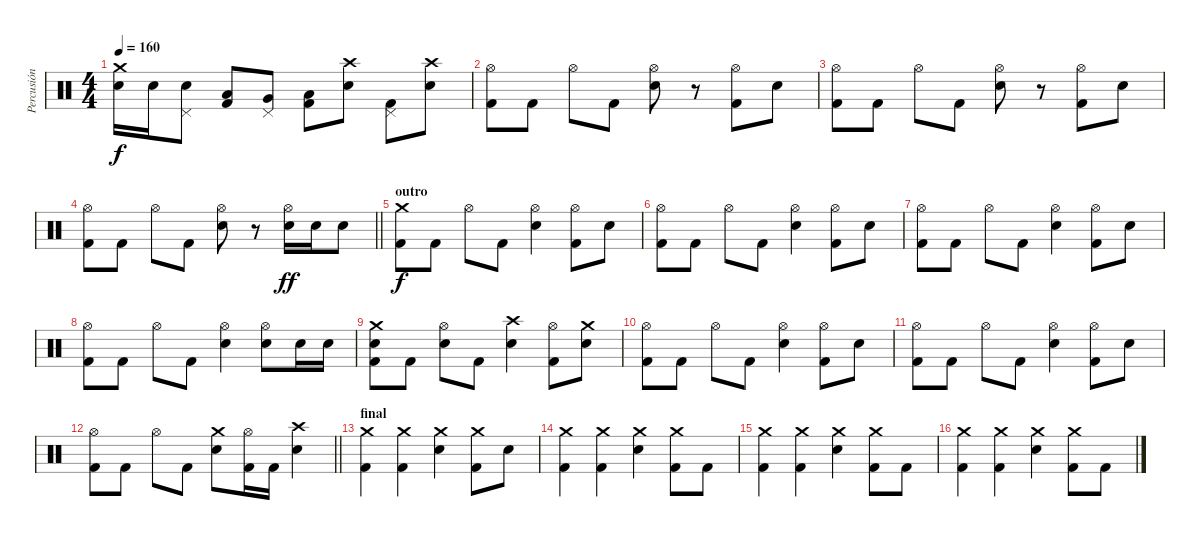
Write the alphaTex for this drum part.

\track ("Percusión" "Percusión") {instrument percussion}
\staff {score}
\articulation defaults
\ts (4 4)
\tempo 160
\clef neutral
\ks c
("Crash medium (hit)" "Snare (hit) 2").16{dy f} "Snare (hit) 2".16 ("Pedal Hi-Hat (hit)" "Snare (hit) 2").8 ("Low Tom (hit)" "Kick (hit) 2").8 ("Pedal Hi-Hat (hit)" "Very Low Tom (hit)").8 ("Low Floor Tom (hit)" "Kick (hit) 2").8 ("Crash high (hit)" "Snare (hit) 2").8 ("Pedal Hi-Hat (hit)" "Kick (hit) 2").8 ("Crash high (hit)" "Snare (hit) 2").8 |
("Hi-Hat (open)" "Kick (hit) 2").8 "Kick (hit) 2".8 "Hi-Hat (open)".8 "Kick (hit) 2".8 ("Hi-Hat (open)" "Snare (hit) 2").8 r.8 ("Hi-Hat (open)" "Kick (hit) 2").8 "Snare (hit) 2".8 |
("Hi-Hat (open)" "Kick (hit) 2").8 "Kick (hit) 2".8 "Hi-Hat (open)".8 "Kick (hit) 2".8 ("Hi-Hat (open)" "Snare (hit) 2").8 r.8 ("Hi-Hat (open)" "Kick (hit) 2").8 "Snare (hit) 2".8 |
\barLineRight lightlight
("Hi-Hat (open)" "Kick (hit) 2").8 "Kick (hit) 2".8 "Hi-Hat (open)".8 "Kick (hit) 2".8 ("Hi-Hat (open)" "Snare (hit) 2").8 r.8 ("Hi-Hat (open)" "Snare (hit) 2").16{dy ff} "Snare (hit) 2".16 "Snare (hit) 2".8 |
\section ("" "outro")
("Crash medium (hit)" "Kick (hit) 2").8{dy f} "Kick (hit) 2".8 "Hi-Hat (open)".8 "Kick (hit) 2".8 ("Hi-Hat (open)" "Snare (hit) 2").4 ("Hi-Hat (open)" "Kick (hit) 2").8 "Snare (hit) 2".8 |
("Hi-Hat (open)" "Kick (hit) 2").8 "Kick (hit) 2".8 "Hi-Hat (open)".8 "Kick (hit) 2".8 ("Hi-Hat (open)" "Snare (hit) 2").4 ("Hi-Hat (open)" "Kick (hit) 2").8 "Snare (hit) 2".8 |
("Hi-Hat (open)" "Kick (hit) 2").8 "Kick (hit) 2".8 "Hi-Hat (open)".8 "Kick (hit) 2".8 ("Hi-Hat (open)" "Snare (hit) 2").4 ("Hi-Hat (open)" "Kick (hit) 2").8 "Snare (hit) 2".8 |
("Hi-Hat (open)" "Kick (hit) 2").8 "Kick (hit) 2".8 "Hi-Hat (open)".8 "Kick (hit) 2".8 ("Hi-Hat (open)" "Snare (hit) 2").4 ("Hi-Hat (open)" "Snare (hit) 2").8 "Snare (hit) 2".16 "Snare (hit) 2".16 |
("Crash medium (hit)" "Snare (hit) 2" "Kick (hit) 2").8 "Kick (hit) 2".8 ("Hi-Hat (open)" "Snare (hit) 2").8 "Kick (hit) 2".8 ("Crash high (hit)" "Snare (hit) 2").4 ("Hi-Hat (open)" "Kick (hit) 2").8 ("Crash medium (hit)" "Snare (hit) 2").8 |
("Hi-Hat (open)" "Kick (hit) 2").8 "Kick (hit) 2".8 "Hi-Hat (open)".8 "Kick (hit) 2".8 ("Hi-Hat (open)" "Snare (hit) 2").4 ("Hi-Hat (open)" "Kick (hit) 2").8 "Snare (hit) 2".8 |
("Hi-Hat (open)" "Kick (hit) 2").8 "Kick (hit) 2".8 "Hi-Hat (open)".8 "Kick (hit) 2".8 ("Hi-Hat (open)" "Snare (hit) 2").4 ("Hi-Hat (open)" "Kick (hit) 2").8 "Snare (hit) 2".8 |
\barLineRight lightlight
("Hi-Hat (open)" "Kick (hit) 2").8 "Kick (hit) 2".8 "Hi-Hat (open)".8 "Kick (hit) 2".8 ("Crash medium (hit)" "Snare (hit) 2").8 ("Hi-Hat (open)" "Kick (hit) 2").16 "Kick (hit) 2".16 ("Crash high (hit)" "Snare (hit) 2").4 |
\section ("" "final")
("Crash medium (hit)" "Kick (hit) 2").4 ("Crash medium (hit)" "Kick (hit) 2").4 ("Crash medium (hit)" "Snare (hit) 2").4 ("Crash medium (hit)" "Kick (hit) 2").8 "Snare (hit) 2".8 |
("Crash medium (hit)" "Kick (hit) 2").4 ("Crash medium (hit)" "Kick (hit) 2").4 ("Crash medium (hit)" "Snare (hit) 2").4 ("Crash medium (hit)" "Kick (hit) 2").8 "Kick (hit) 2".8 |
("Crash medium (hit)" "Kick (hit) 2").4 ("Crash medium (hit)" "Kick (hit) 2").4 ("Crash medium (hit)" "Snare (hit) 2").4 ("Crash medium (hit)" "Kick (hit) 2").8 "Kick (hit) 2".8 |
("Crash medium (hit)" "Kick (hit) 2").4 ("Crash medium (hit)" "Kick (hit) 2").4 ("Crash medium (hit)" "Snare (hit) 2").4 ("Crash medium (hit)" "Kick (hit) 2").8 "Kick (hit) 2".8
